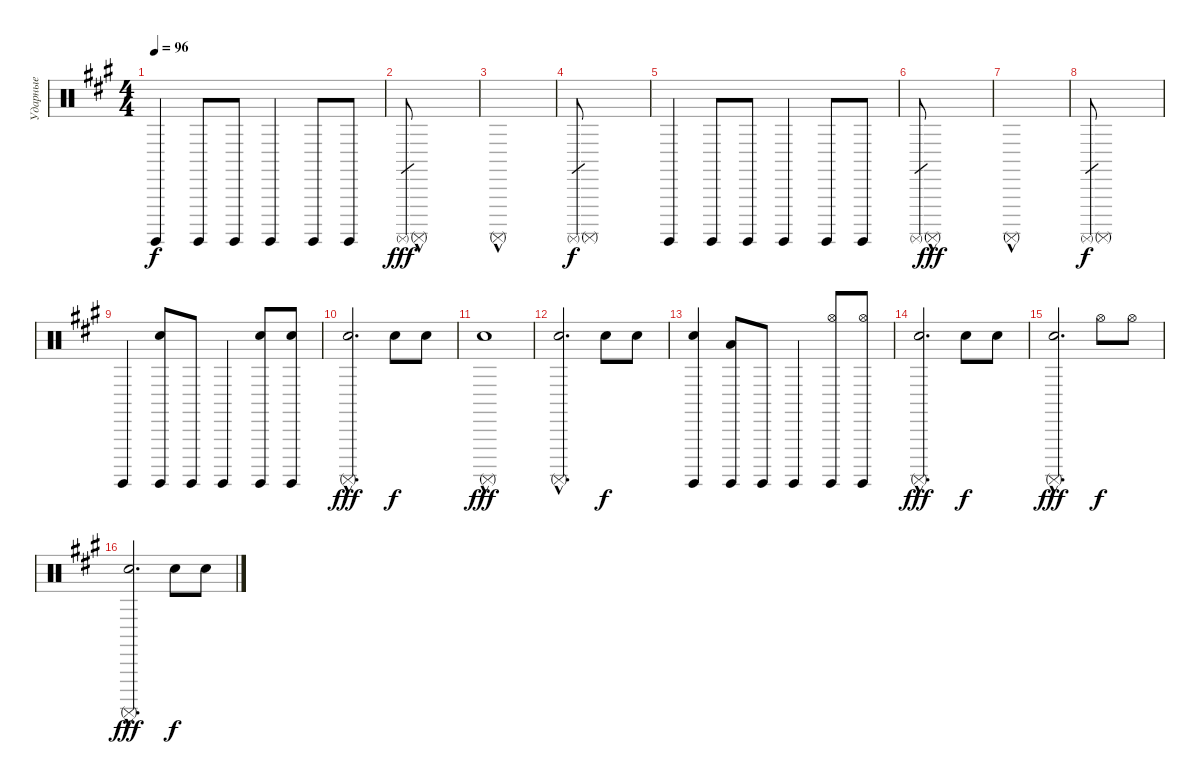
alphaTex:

\track ("Ударные" "Ударные") {solo instrument percussion}
\staff {score}
\articulation defaults
\ts (4 4)
\tempo 96
\clef neutral
\ks f#minor "Surdo (hit)".4{dy f} "Surdo (hit)".8 "Surdo (hit)".8 "Surdo (hit)".4 "Surdo (hit)".8 "Surdo (hit)".8
|
"Surdo (mute)".8{gr dy fff} "Surdo (mute)"{hac}.1 |
"Surdo (mute)"{hac}.1 |
"Surdo (mute)".8{gr dy f} "Surdo (mute)".1 |
"Surdo (hit)".4 "Surdo (hit)".8 "Surdo (hit)".8 "Surdo (hit)".4 "Surdo (hit)".8 "Surdo (hit)".8 |
"Surdo (mute)".8{gr} "Surdo (mute)"{hac}.1{dy fff} |
"Surdo (mute)"{hac}.1 |
"Surdo (mute)".8{gr dy f} "Surdo (mute)".1 |
"Surdo (hit)".4 ("Snare (hit) 2" "Surdo (hit)").8 "Surdo (hit)".8 "Surdo (hit)".4 ("Snare (hit) 2" "Surdo (hit)").8 ("Snare (hit) 2" "Surdo (hit)").8 |
("Snare (hit) 2" "Surdo (mute)"{hac}).2{d dy fff} "Electric Snare (hit)".8{dy f} "Electric Snare (hit)".8 |
("Snare (hit) 2" "Surdo (mute)"{hac}).1{dy fff} |
("Snare (hit) 2" "Surdo (mute)"{hac}).2{d} "Electric Snare (hit)".8{dy f} "Electric Snare (hit)".8 |
("Snare (hit) 2" "Surdo (hit)").4 ("Low Floor Tom (hit)" "Surdo (hit)").8 "Surdo (hit)".8 "Surdo (hit)".4 ("Surdo (hit)" "Hi-Hat (open)").8 ("Hi-Hat (open)" "Surdo (hit)").8 |
("Snare (hit) 2" "Surdo (mute)"{hac}).2{d dy fff} "Electric Snare (hit)".8{dy f} "Electric Snare (hit)".8 |
("Snare (hit) 2" "Surdo (mute)"{hac}).2{d dy fff} "Hi-Hat (open)".8{dy f} "Hi-Hat (open)".8 |
("Snare (hit) 2" "Surdo (mute)"{hac}).2{d dy fff} "Electric Snare (hit)".8{dy f} "Electric Snare (hit)".8
